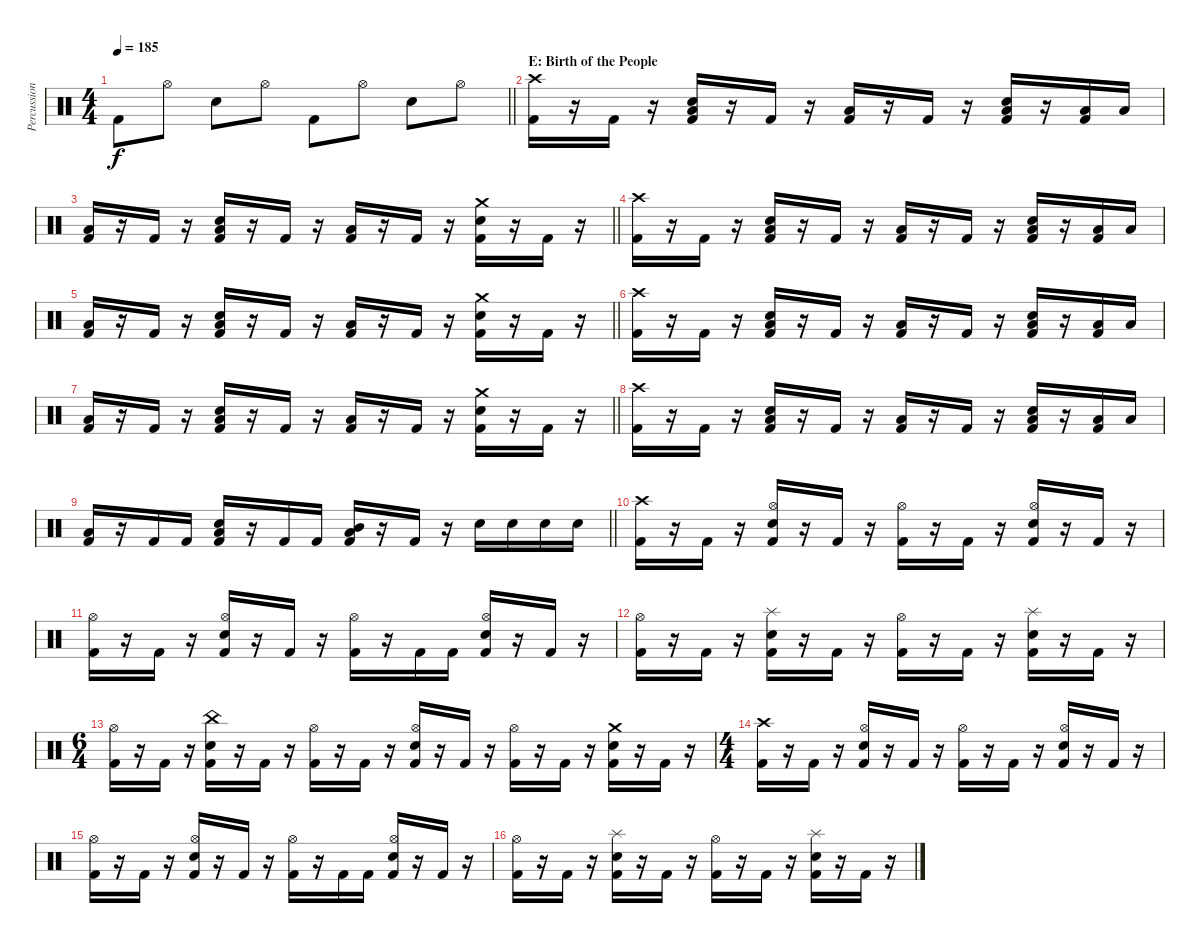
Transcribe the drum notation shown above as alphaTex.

\track ("Percussion" "Percussion") {instrument percussion}
\staff {score}
\articulation defaults
\ts (4 4)
\tempo 185
\clef neutral
\barLineRight lightlight
\ks c "Kick (hit) 2".8{dy f} "Hi-Hat (open)".8 "Snare (hit) 2".8 "Hi-Hat (open)".8 "Kick (hit) 2".8 "Hi-Hat (open)".8 "Snare (hit) 2".8 "Hi-Hat (open)".8
|
\section ("" "E: Birth of the People")
("Crash high (hit)" "Kick (hit) 2").16 r.16 "Kick (hit) 2".16 r.16 ("Low Tom (hit)" "Snare (hit) 2" "Kick (hit) 2").16 r.16 "Kick (hit) 2".16 r.16 ("Low Tom (hit)" "Kick (hit) 2").16 r.16 "Kick (hit) 2".16 r.16 ("Low Tom (hit)" "Snare (hit) 2" "Kick (hit) 2").16 r.16 ("Low Tom (hit)" "Kick (hit) 2").16 "Low Tom (hit)".16 |
\barLineRight lightlight
("Low Tom (hit)" "Kick (hit) 2").16 r.16 "Kick (hit) 2".16 r.16 ("Low Tom (hit)" "Snare (hit) 2" "Kick (hit) 2").16 r.16 "Kick (hit) 2".16 r.16 ("Low Tom (hit)" "Kick (hit) 2").16 r.16 "Kick (hit) 2".16 r.16 ("Crash medium (hit)" "Snare (hit) 2" "Kick (hit) 2").16 r.16 "Kick (hit) 2".16 r.16 |
("Crash high (hit)" "Kick (hit) 2").16 r.16 "Kick (hit) 2".16 r.16 ("Low Tom (hit)" "Snare (hit) 2" "Kick (hit) 2").16 r.16 "Kick (hit) 2".16 r.16 ("Low Tom (hit)" "Kick (hit) 2").16 r.16 "Kick (hit) 2".16 r.16 ("Low Tom (hit)" "Snare (hit) 2" "Kick (hit) 2").16 r.16 ("Low Tom (hit)" "Kick (hit) 2").16 "Low Tom (hit)".16 |
\barLineRight lightlight
("Low Tom (hit)" "Kick (hit) 2").16 r.16 "Kick (hit) 2".16 r.16 ("Low Tom (hit)" "Snare (hit) 2" "Kick (hit) 2").16 r.16 "Kick (hit) 2".16 r.16 ("Low Tom (hit)" "Kick (hit) 2").16 r.16 "Kick (hit) 2".16 r.16 ("Crash medium (hit)" "Snare (hit) 2" "Kick (hit) 2").16 r.16 "Kick (hit) 2".16 r.16 |
("Crash high (hit)" "Kick (hit) 2").16 r.16 "Kick (hit) 2".16 r.16 ("Low Tom (hit)" "Snare (hit) 2" "Kick (hit) 2").16 r.16 "Kick (hit) 2".16 r.16 ("Low Tom (hit)" "Kick (hit) 2").16 r.16 "Kick (hit) 2".16 r.16 ("Low Tom (hit)" "Snare (hit) 2" "Kick (hit) 2").16 r.16 ("Low Tom (hit)" "Kick (hit) 2").16 "Low Tom (hit)".16 |
\barLineRight lightlight
("Low Tom (hit)" "Kick (hit) 2").16 r.16 "Kick (hit) 2".16 r.16 ("Low Tom (hit)" "Snare (hit) 2" "Kick (hit) 2").16 r.16 "Kick (hit) 2".16 r.16 ("Low Tom (hit)" "Kick (hit) 2").16 r.16 "Kick (hit) 2".16 r.16 ("Crash medium (hit)" "Snare (hit) 2" "Kick (hit) 2").16 r.16 "Kick (hit) 2".16 r.16 |
("Crash high (hit)" "Kick (hit) 2").16 r.16 "Kick (hit) 2".16 r.16 ("Low Tom (hit)" "Snare (hit) 2" "Kick (hit) 2").16 r.16 "Kick (hit) 2".16 r.16 ("Low Tom (hit)" "Kick (hit) 2").16 r.16 "Kick (hit) 2".16 r.16 ("Low Tom (hit)" "Snare (hit) 2" "Kick (hit) 2").16 r.16 ("Low Tom (hit)" "Kick (hit) 2").16 "Low Tom (hit)".16 |
\barLineRight lightlight
("Low Tom (hit)" "Kick (hit) 2").16 r.16 "Kick (hit) 2".16 "Kick (hit) 2".16 ("Low Tom (hit)" "Snare (hit) 2" "Kick (hit) 2").16 r.16 "Kick (hit) 2".16 "Kick (hit) 2".16 ("Mid Tom (hit)" "Low Tom (hit)" "Kick (hit) 2").16 r.16 "Kick (hit) 2".16 r.16 "Snare (hit) 2".16 "Snare (hit) 2".16 "Snare (hit) 2".16 "Snare (hit) 2".16 |
\section ("" "")
("Crash high (hit)" "Kick (hit) 2").16 r.16 "Kick (hit) 2".16 r.16 ("Hi-Hat (open)" "Snare (hit) 2" "Kick (hit) 2").16 r.16 "Kick (hit) 2".16 r.16 ("Hi-Hat (open)" "Kick (hit) 2").16 r.16 "Kick (hit) 2".16 r.16 ("Hi-Hat (open)" "Snare (hit) 2" "Kick (hit) 2").16 r.16 "Kick (hit) 2".16 r.16 |
("Hi-Hat (open)" "Kick (hit) 2").16 r.16 "Kick (hit) 2".16 r.16 ("Hi-Hat (open)" "Snare (hit) 2" "Kick (hit) 2").16 r.16 "Kick (hit) 2".16 r.16 ("Hi-Hat (open)" "Kick (hit) 2").16 r.16 "Kick (hit) 2".16 "Kick (hit) 2".16 ("Hi-Hat (open)" "Snare (hit) 2" "Kick (hit) 2").16 r.16 "Kick (hit) 2".16 r.16 |
("Hi-Hat (open)" "Kick (hit) 2").16 r.16 "Kick (hit) 2".16 r.16 ("Splash (hit)" "Snare (hit) 2" "Kick (hit) 2").16 r.16 "Kick (hit) 2".16 r.16 ("Hi-Hat (open)" "Kick (hit) 2").16 r.16 "Kick (hit) 2".16 r.16 ("Splash (hit)" "Snare (hit) 2" "Kick (hit) 2").16 r.16 "Kick (hit) 2".16 r.16 |
\ts (6 4)
("Hi-Hat (open)" "Kick (hit) 2").16 r.16 "Kick (hit) 2".16 r.16 ("China (hit)" "Snare (hit) 2" "Kick (hit) 2").16 r.16 "Kick (hit) 2".16 r.16 ("Hi-Hat (open)" "Kick (hit) 2").16 r.16 "Kick (hit) 2".16 r.16 ("Hi-Hat (open)" "Snare (hit) 2" "Kick (hit) 2").16 r.16 "Kick (hit) 2".16 r.16 ("Hi-Hat (open)" "Kick (hit) 2").16 r.16 "Kick (hit) 2".16 r.16 ("Crash medium (hit)" "Snare (hit) 2" "Kick (hit) 2").16 r.16 "Kick (hit) 2".16 r.16 |
\ts (4 4)
("Crash high (hit)" "Kick (hit) 2").16 r.16 "Kick (hit) 2".16 r.16 ("Hi-Hat (open)" "Snare (hit) 2" "Kick (hit) 2").16 r.16 "Kick (hit) 2".16 r.16 ("Hi-Hat (open)" "Kick (hit) 2").16 r.16 "Kick (hit) 2".16 r.16 ("Hi-Hat (open)" "Snare (hit) 2" "Kick (hit) 2").16 r.16 "Kick (hit) 2".16 r.16 |
("Hi-Hat (open)" "Kick (hit) 2").16 r.16 "Kick (hit) 2".16 r.16 ("Hi-Hat (open)" "Snare (hit) 2" "Kick (hit) 2").16 r.16 "Kick (hit) 2".16 r.16 ("Hi-Hat (open)" "Kick (hit) 2").16 r.16 "Kick (hit) 2".16 "Kick (hit) 2".16 ("Hi-Hat (open)" "Snare (hit) 2" "Kick (hit) 2").16 r.16 "Kick (hit) 2".16 r.16 |
("Hi-Hat (open)" "Kick (hit) 2").16 r.16 "Kick (hit) 2".16 r.16 ("Splash (hit)" "Snare (hit) 2" "Kick (hit) 2").16 r.16 "Kick (hit) 2".16 r.16 ("Hi-Hat (open)" "Kick (hit) 2").16 r.16 "Kick (hit) 2".16 r.16 ("Splash (hit)" "Snare (hit) 2" "Kick (hit) 2").16 r.16 "Kick (hit) 2".16 r.16
